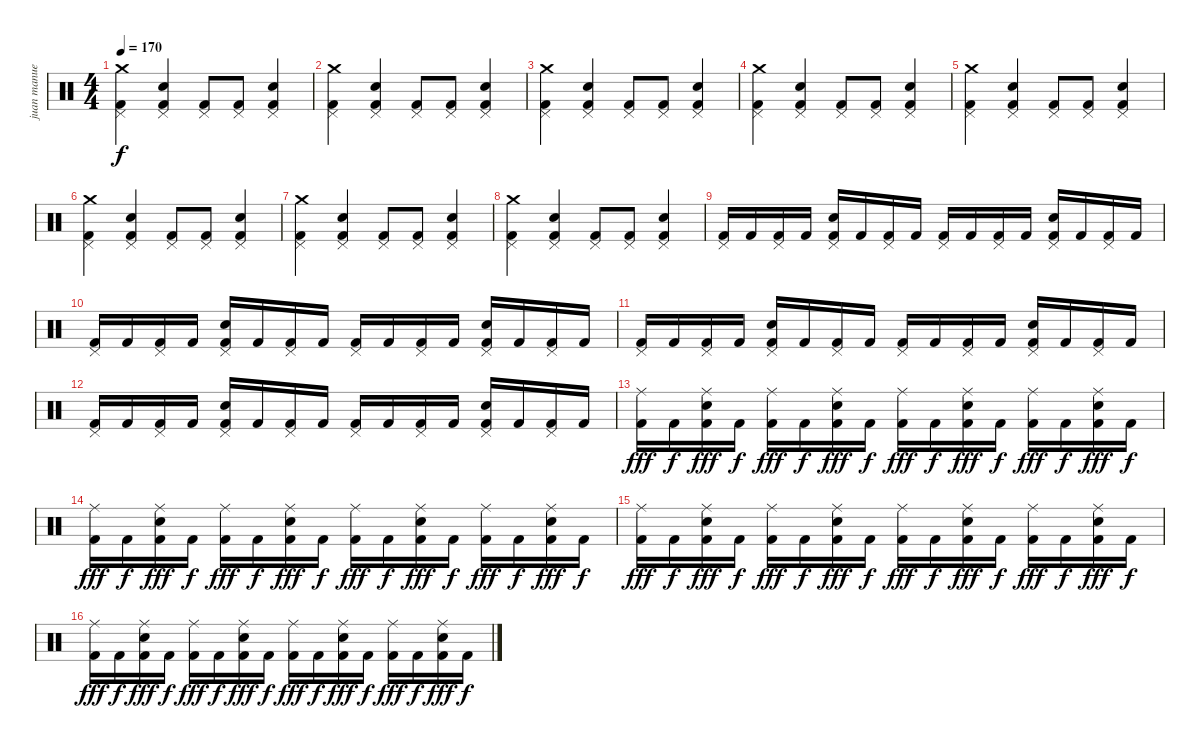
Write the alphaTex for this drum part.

\track ("juan manuel" "juan manue") {instrument percussion}
\staff {score}
\articulation defaults
\ts (4 4)
\tempo 170
\clef neutral
\ks c
("Crash medium (hit)" "Pedal Hi-Hat (hit)" "Kick (hit) 2").4{dy f} ("Snare (hit) 2" "Pedal Hi-Hat (hit)" "Kick (hit) 2").4 ("Pedal Hi-Hat (hit)" "Kick (hit) 2").8 ("Pedal Hi-Hat (hit)" "Kick (hit) 2").8 ("Snare (hit) 2" "Pedal Hi-Hat (hit)" "Kick (hit) 2").4 |
("Crash medium (hit)" "Pedal Hi-Hat (hit)" "Kick (hit) 2").4 ("Snare (hit) 2" "Pedal Hi-Hat (hit)" "Kick (hit) 2").4 ("Pedal Hi-Hat (hit)" "Kick (hit) 2").8 ("Pedal Hi-Hat (hit)" "Kick (hit) 2").8 ("Snare (hit) 2" "Pedal Hi-Hat (hit)" "Kick (hit) 2").4 |
("Crash medium (hit)" "Pedal Hi-Hat (hit)" "Kick (hit) 2").4 ("Snare (hit) 2" "Pedal Hi-Hat (hit)" "Kick (hit) 2").4 ("Pedal Hi-Hat (hit)" "Kick (hit) 2").8 ("Pedal Hi-Hat (hit)" "Kick (hit) 2").8 ("Snare (hit) 2" "Pedal Hi-Hat (hit)" "Kick (hit) 2").4 |
("Crash medium (hit)" "Pedal Hi-Hat (hit)" "Kick (hit) 2").4 ("Snare (hit) 2" "Pedal Hi-Hat (hit)" "Kick (hit) 2").4 ("Pedal Hi-Hat (hit)" "Kick (hit) 2").8 ("Pedal Hi-Hat (hit)" "Kick (hit) 2").8 ("Snare (hit) 2" "Pedal Hi-Hat (hit)" "Kick (hit) 2").4 |
("Crash medium (hit)" "Pedal Hi-Hat (hit)" "Kick (hit) 2").4 ("Snare (hit) 2" "Pedal Hi-Hat (hit)" "Kick (hit) 2").4 ("Pedal Hi-Hat (hit)" "Kick (hit) 2").8 ("Pedal Hi-Hat (hit)" "Kick (hit) 2").8 ("Snare (hit) 2" "Pedal Hi-Hat (hit)" "Kick (hit) 2").4 |
("Crash medium (hit)" "Pedal Hi-Hat (hit)" "Kick (hit) 2").4 ("Snare (hit) 2" "Pedal Hi-Hat (hit)" "Kick (hit) 2").4 ("Pedal Hi-Hat (hit)" "Kick (hit) 2").8 ("Pedal Hi-Hat (hit)" "Kick (hit) 2").8 ("Snare (hit) 2" "Pedal Hi-Hat (hit)" "Kick (hit) 2").4 |
("Crash medium (hit)" "Pedal Hi-Hat (hit)" "Kick (hit) 2").4 ("Snare (hit) 2" "Pedal Hi-Hat (hit)" "Kick (hit) 2").4 ("Pedal Hi-Hat (hit)" "Kick (hit) 2").8 ("Pedal Hi-Hat (hit)" "Kick (hit) 2").8 ("Snare (hit) 2" "Pedal Hi-Hat (hit)" "Kick (hit) 2").4 |
("Crash medium (hit)" "Pedal Hi-Hat (hit)" "Kick (hit) 2").4 ("Snare (hit) 2" "Pedal Hi-Hat (hit)" "Kick (hit) 2").4 ("Pedal Hi-Hat (hit)" "Kick (hit) 2").8 ("Pedal Hi-Hat (hit)" "Kick (hit) 2").8 ("Snare (hit) 2" "Pedal Hi-Hat (hit)" "Kick (hit) 2").4 |
("Pedal Hi-Hat (hit)" "Kick (hit) 2").16 "Kick (hit) 2".16 ("Pedal Hi-Hat (hit)" "Kick (hit) 2").16 "Kick (hit) 2".16 ("Pedal Hi-Hat (hit)" "Electric Snare (hit)" "Kick (hit) 2").16 "Kick (hit) 2".16 ("Pedal Hi-Hat (hit)" "Kick (hit) 2").16 "Kick (hit) 2".16 ("Pedal Hi-Hat (hit)" "Kick (hit) 2").16 "Kick (hit) 2".16 ("Pedal Hi-Hat (hit)" "Kick (hit) 2").16 "Kick (hit) 2".16 ("Pedal Hi-Hat (hit)" "Electric Snare (hit)" "Kick (hit) 2").16 "Kick (hit) 2".16 ("Pedal Hi-Hat (hit)" "Kick (hit) 2").16 "Kick (hit) 2".16 |
("Pedal Hi-Hat (hit)" "Kick (hit) 2").16 "Kick (hit) 2".16 ("Pedal Hi-Hat (hit)" "Kick (hit) 2").16 "Kick (hit) 2".16 ("Pedal Hi-Hat (hit)" "Electric Snare (hit)" "Kick (hit) 2").16 "Kick (hit) 2".16 ("Pedal Hi-Hat (hit)" "Kick (hit) 2").16 "Kick (hit) 2".16 ("Pedal Hi-Hat (hit)" "Kick (hit) 2").16 "Kick (hit) 2".16 ("Pedal Hi-Hat (hit)" "Kick (hit) 2").16 "Kick (hit) 2".16 ("Pedal Hi-Hat (hit)" "Electric Snare (hit)" "Kick (hit) 2").16 "Kick (hit) 2".16 ("Pedal Hi-Hat (hit)" "Kick (hit) 2").16 "Kick (hit) 2".16 |
("Pedal Hi-Hat (hit)" "Kick (hit) 2").16 "Kick (hit) 2".16 ("Pedal Hi-Hat (hit)" "Kick (hit) 2").16 "Kick (hit) 2".16 ("Pedal Hi-Hat (hit)" "Electric Snare (hit)" "Kick (hit) 2").16 "Kick (hit) 2".16 ("Pedal Hi-Hat (hit)" "Kick (hit) 2").16 "Kick (hit) 2".16 ("Pedal Hi-Hat (hit)" "Kick (hit) 2").16 "Kick (hit) 2".16 ("Pedal Hi-Hat (hit)" "Kick (hit) 2").16 "Kick (hit) 2".16 ("Pedal Hi-Hat (hit)" "Electric Snare (hit)" "Kick (hit) 2").16 "Kick (hit) 2".16 ("Pedal Hi-Hat (hit)" "Kick (hit) 2").16 "Kick (hit) 2".16 |
("Pedal Hi-Hat (hit)" "Kick (hit) 2").16 "Kick (hit) 2".16 ("Pedal Hi-Hat (hit)" "Kick (hit) 2").16 "Kick (hit) 2".16 ("Pedal Hi-Hat (hit)" "Electric Snare (hit)" "Kick (hit) 2").16 "Kick (hit) 2".16 ("Pedal Hi-Hat (hit)" "Kick (hit) 2").16 "Kick (hit) 2".16 ("Pedal Hi-Hat (hit)" "Kick (hit) 2").16 "Kick (hit) 2".16 ("Pedal Hi-Hat (hit)" "Kick (hit) 2").16 "Kick (hit) 2".16 ("Pedal Hi-Hat (hit)" "Electric Snare (hit)" "Kick (hit) 2").16 "Kick (hit) 2".16 ("Pedal Hi-Hat (hit)" "Kick (hit) 2").16 "Kick (hit) 2".16 |
("Ride (middle)" "Kick (hit) 2").16{dy fff} "Kick (hit) 2".16{dy f} ("Ride (middle)" "Electric Snare (hit)" "Kick (hit) 2").16{dy fff} "Kick (hit) 2".16{dy f} ("Ride (middle)" "Kick (hit) 2").16{dy fff} "Kick (hit) 2".16{dy f} ("Ride (middle)" "Electric Snare (hit)" "Kick (hit) 2").16{dy fff} "Kick (hit) 2".16{dy f} ("Ride (middle)" "Kick (hit) 2").16{dy fff} "Kick (hit) 2".16{dy f} ("Ride (middle)" "Electric Snare (hit)" "Kick (hit) 2").16{dy fff} "Kick (hit) 2".16{dy f} ("Ride (middle)" "Kick (hit) 2").16{dy fff} "Kick (hit) 2".16{dy f} ("Ride (middle)" "Electric Snare (hit)" "Kick (hit) 2").16{dy fff} "Kick (hit) 2".16{dy f} |
("Ride (middle)" "Kick (hit) 2").16{dy fff} "Kick (hit) 2".16{dy f} ("Ride (middle)" "Electric Snare (hit)" "Kick (hit) 2").16{dy fff} "Kick (hit) 2".16{dy f} ("Ride (middle)" "Kick (hit) 2").16{dy fff} "Kick (hit) 2".16{dy f} ("Ride (middle)" "Electric Snare (hit)" "Kick (hit) 2").16{dy fff} "Kick (hit) 2".16{dy f} ("Ride (middle)" "Kick (hit) 2").16{dy fff} "Kick (hit) 2".16{dy f} ("Ride (middle)" "Electric Snare (hit)" "Kick (hit) 2").16{dy fff} "Kick (hit) 2".16{dy f} ("Ride (middle)" "Kick (hit) 2").16{dy fff} "Kick (hit) 2".16{dy f} ("Ride (middle)" "Electric Snare (hit)" "Kick (hit) 2").16{dy fff} "Kick (hit) 2".16{dy f} |
("Ride (middle)" "Kick (hit) 2").16{dy fff} "Kick (hit) 2".16{dy f} ("Ride (middle)" "Electric Snare (hit)" "Kick (hit) 2").16{dy fff} "Kick (hit) 2".16{dy f} ("Ride (middle)" "Kick (hit) 2").16{dy fff} "Kick (hit) 2".16{dy f} ("Ride (middle)" "Electric Snare (hit)" "Kick (hit) 2").16{dy fff} "Kick (hit) 2".16{dy f} ("Ride (middle)" "Kick (hit) 2").16{dy fff} "Kick (hit) 2".16{dy f} ("Ride (middle)" "Electric Snare (hit)" "Kick (hit) 2").16{dy fff} "Kick (hit) 2".16{dy f} ("Ride (middle)" "Kick (hit) 2").16{dy fff} "Kick (hit) 2".16{dy f} ("Ride (middle)" "Electric Snare (hit)" "Kick (hit) 2").16{dy fff} "Kick (hit) 2".16{dy f} |
("Ride (middle)" "Kick (hit) 2").16{dy fff} "Kick (hit) 2".16{dy f} ("Ride (middle)" "Electric Snare (hit)" "Kick (hit) 2").16{dy fff} "Kick (hit) 2".16{dy f} ("Ride (middle)" "Kick (hit) 2").16{dy fff} "Kick (hit) 2".16{dy f} ("Ride (middle)" "Electric Snare (hit)" "Kick (hit) 2").16{dy fff} "Kick (hit) 2".16{dy f} ("Ride (middle)" "Kick (hit) 2").16{dy fff} "Kick (hit) 2".16{dy f} ("Ride (middle)" "Electric Snare (hit)" "Kick (hit) 2").16{dy fff} "Kick (hit) 2".16{dy f} ("Ride (middle)" "Kick (hit) 2").16{dy fff} "Kick (hit) 2".16{dy f} ("Ride (middle)" "Electric Snare (hit)" "Kick (hit) 2").16{dy fff} "Kick (hit) 2".16{dy f}
